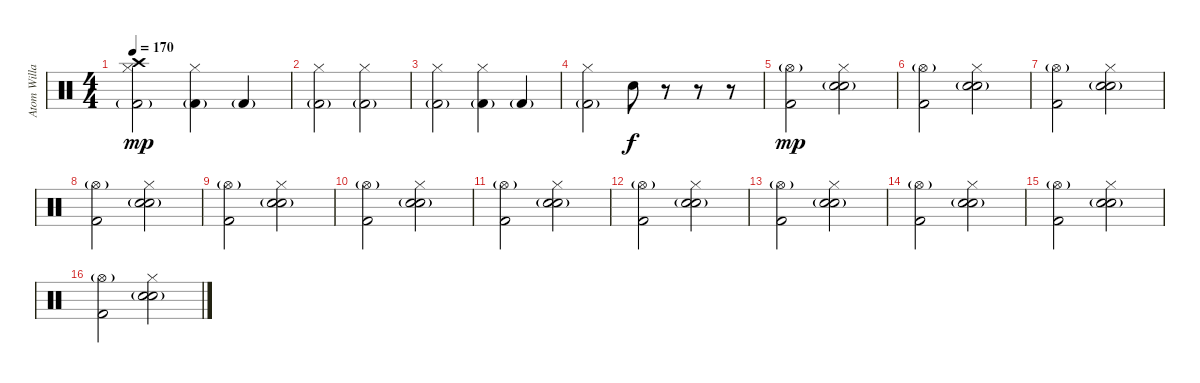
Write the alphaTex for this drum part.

\track ("Atom Willard" "Atom Willa") {instrument percussion}
\staff {score}
\articulation defaults
\ts (4 4)
\tempo 170
\clef neutral
\ks c
("Crash high (hit)" "Hi-Hat (closed)" "Kick (hit) 2"{g}).2{dy mp} ("Hi-Hat (closed)" "Kick (hit) 2"{g}).4 "Kick (hit) 2"{g}.4 |
("Hi-Hat (closed)" "Kick (hit) 2"{g}).2 ("Hi-Hat (closed)" "Kick (hit) 2"{g}).2 |
("Hi-Hat (closed)" "Kick (hit) 2"{g}).2 ("Hi-Hat (closed)" "Kick (hit) 2"{g}).4 "Kick (hit) 2"{g}.4 |
("Hi-Hat (closed)" "Kick (hit) 2"{g}).2 "Electric Snare (hit)".8{dy f} r.8 r.8 r.8 |
("Hi-Hat (open)"{g} "Kick (hit) 2").2{dy mp} ("Hi-Hat (closed)" "Electric Snare (hit)"{g} "Snare (hit) 2"{g}).2 |
("Hi-Hat (open)"{g} "Kick (hit) 2").2 ("Hi-Hat (closed)" "Electric Snare (hit)"{g} "Snare (hit) 2"{g}).2 |
("Hi-Hat (open)"{g} "Kick (hit) 2").2 ("Hi-Hat (closed)" "Electric Snare (hit)"{g} "Snare (hit) 2"{g}).2 |
("Hi-Hat (open)"{g} "Kick (hit) 2").2 ("Hi-Hat (closed)" "Electric Snare (hit)"{g} "Snare (hit) 2"{g}).2 |
("Hi-Hat (open)"{g} "Kick (hit) 2").2 ("Hi-Hat (closed)" "Electric Snare (hit)"{g} "Snare (hit) 2"{g}).2 |
("Hi-Hat (open)"{g} "Kick (hit) 2").2 ("Hi-Hat (closed)" "Electric Snare (hit)"{g} "Snare (hit) 2"{g}).2 |
("Hi-Hat (open)"{g} "Kick (hit) 2").2 ("Hi-Hat (closed)" "Electric Snare (hit)"{g} "Snare (hit) 2"{g}).2 |
("Hi-Hat (open)"{g} "Kick (hit) 2").2 ("Hi-Hat (closed)" "Electric Snare (hit)"{g} "Snare (hit) 2"{g}).2 |
("Hi-Hat (open)"{g} "Kick (hit) 2").2 ("Hi-Hat (closed)" "Electric Snare (hit)"{g} "Snare (hit) 2"{g}).2 |
("Hi-Hat (open)"{g} "Kick (hit) 2").2 ("Hi-Hat (closed)" "Electric Snare (hit)"{g} "Snare (hit) 2"{g}).2 |
("Hi-Hat (open)"{g} "Kick (hit) 2").2 ("Hi-Hat (closed)" "Electric Snare (hit)"{g} "Snare (hit) 2"{g}).2 |
("Hi-Hat (open)"{g} "Kick (hit) 2").2 ("Hi-Hat (closed)" "Electric Snare (hit)"{g} "Snare (hit) 2"{g}).2
